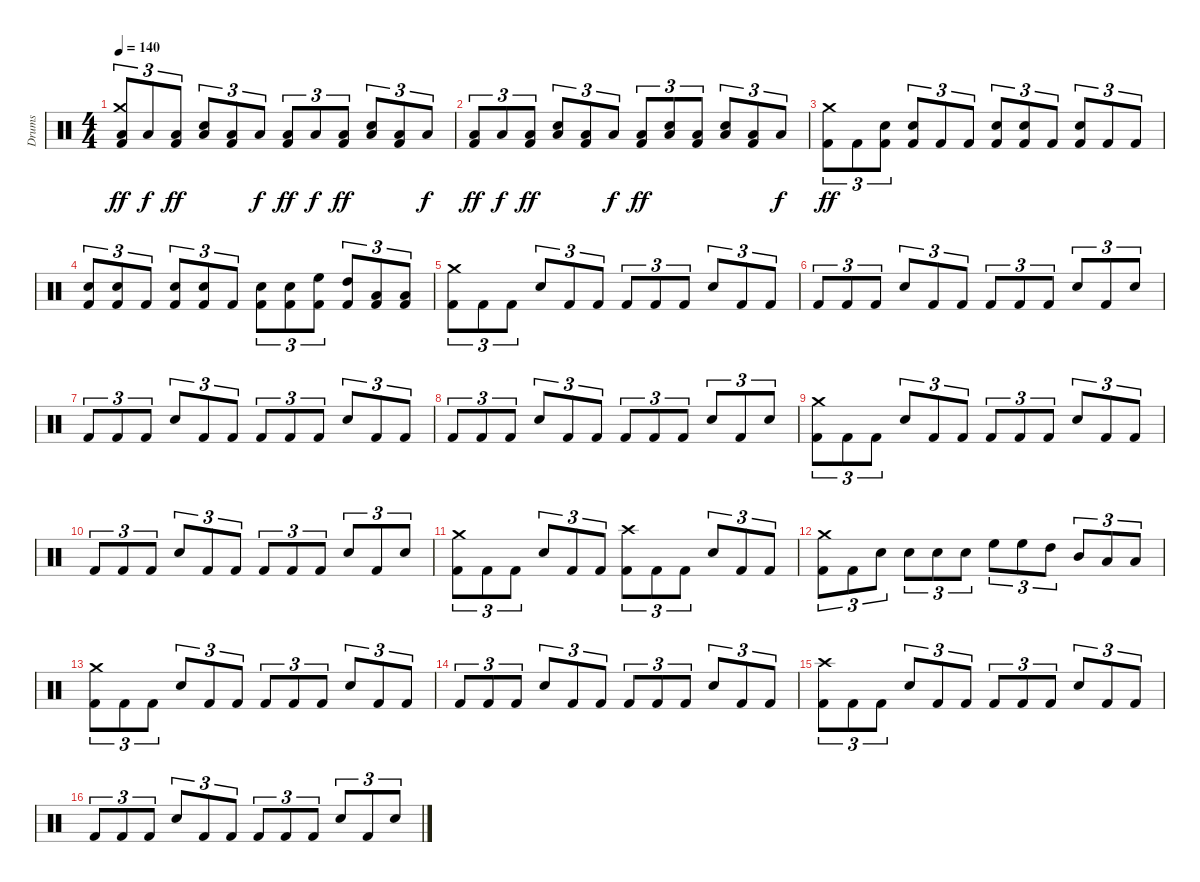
\track ("Drums" "Drums") {instrument percussion}
\staff {score}
\articulation defaults
\ts (4 4)
\tempo 140
\clef neutral
\ks c
("Kick (hit) 2" "Crash medium (hit)" "Low Floor Tom (hit)").8{tu (3 2) dy ff} "Low Floor Tom (hit)".8{tu (3 2) dy f} ("Kick (hit) 2" "Low Floor Tom (hit)").8{tu (3 2) dy ff} ("Snare (hit) 2" "Low Floor Tom (hit)").8{tu (3 2)} ("Kick (hit) 2" "Low Floor Tom (hit)").8{tu (3 2)} "Low Floor Tom (hit)".8{tu (3 2) dy f} ("Kick (hit) 2" "Low Floor Tom (hit)").8{tu (3 2) dy ff} "Low Floor Tom (hit)".8{tu (3 2) dy f} ("Kick (hit) 2" "Low Floor Tom (hit)").8{tu (3 2) dy ff} ("Snare (hit) 2" "Low Floor Tom (hit)").8{tu (3 2)} ("Kick (hit) 2" "Low Floor Tom (hit)").8{tu (3 2)} "Low Floor Tom (hit)".8{tu (3 2) dy f} |
("Kick (hit) 2" "Low Floor Tom (hit)").8{tu (3 2) dy ff} "Low Floor Tom (hit)".8{tu (3 2) dy f} ("Kick (hit) 2" "Low Floor Tom (hit)").8{tu (3 2) dy ff} ("Snare (hit) 2" "Low Floor Tom (hit)").8{tu (3 2)} ("Kick (hit) 2" "Low Floor Tom (hit)").8{tu (3 2)} "Low Floor Tom (hit)".8{tu (3 2) dy f} ("Kick (hit) 2" "Low Floor Tom (hit)").8{tu (3 2) dy ff} ("Snare (hit) 2" "Low Floor Tom (hit)").8{tu (3 2)} ("Kick (hit) 2" "Low Floor Tom (hit)").8{tu (3 2)} ("Snare (hit) 2" "Low Floor Tom (hit)").8{tu (3 2)} ("Kick (hit) 2" "Low Floor Tom (hit)").8{tu (3 2)} "Low Floor Tom (hit)".8{tu (3 2) dy f} |
("Kick (hit) 2" "Crash medium (hit)").8{tu (3 2) dy ff} "Kick (hit) 2".8{tu (3 2)} ("Kick (hit) 2" "Snare (hit) 2").8{tu (3 2)} ("Snare (hit) 2" "Kick (hit) 2").8{tu (3 2)} "Kick (hit) 2".8{tu (3 2)} "Kick (hit) 2".8{tu (3 2)} ("Snare (hit) 2" "Kick (hit) 2").8{tu (3 2)} ("Snare (hit) 2" "Kick (hit) 2").8{tu (3 2)} "Kick (hit) 2".8{tu (3 2)} ("Snare (hit) 2" "Kick (hit) 2").8{tu (3 2)} "Kick (hit) 2".8{tu (3 2)} "Kick (hit) 2".8{tu (3 2)} |
("Snare (hit) 2" "Kick (hit) 2").8{tu (3 2)} ("Snare (hit) 2" "Kick (hit) 2").8{tu (3 2)} "Kick (hit) 2".8{tu (3 2)} ("Snare (hit) 2" "Kick (hit) 2").8{tu (3 2)} ("Snare (hit) 2" "Kick (hit) 2").8{tu (3 2)} "Kick (hit) 2".8{tu (3 2)} ("Snare (hit) 2" "Kick (hit) 2").8{tu (3 2)} ("Snare (hit) 2" "Kick (hit) 2").8{tu (3 2)} ("High Floor Tom (hit)" "Kick (hit) 2").8{tu (3 2)} ("High Tom (hit)" "Kick (hit) 2").8{tu (3 2)} ("Low Tom (hit)" "Kick (hit) 2").8{tu (3 2)} ("Low Floor Tom (hit)" "Kick (hit) 2").8{tu (3 2)} |
("Kick (hit) 2" "Crash medium (hit)").8{tu (3 2)} "Kick (hit) 2".8{tu (3 2)} "Kick (hit) 2".8{tu (3 2)} "Snare (hit) 2".8{tu (3 2)} "Kick (hit) 2".8{tu (3 2)} "Kick (hit) 2".8{tu (3 2)} "Kick (hit) 2".8{tu (3 2)} "Kick (hit) 2".8{tu (3 2)} "Kick (hit) 2".8{tu (3 2)} "Snare (hit) 2".8{tu (3 2)} "Kick (hit) 2".8{tu (3 2)} "Kick (hit) 2".8{tu (3 2)} |
"Kick (hit) 2".8{tu (3 2)} "Kick (hit) 2".8{tu (3 2)} "Kick (hit) 2".8{tu (3 2)} "Snare (hit) 2".8{tu (3 2)} "Kick (hit) 2".8{tu (3 2)} "Kick (hit) 2".8{tu (3 2)} "Kick (hit) 2".8{tu (3 2)} "Kick (hit) 2".8{tu (3 2)} "Kick (hit) 2".8{tu (3 2)} "Snare (hit) 2".8{tu (3 2)} "Kick (hit) 2".8{tu (3 2)} "Snare (hit) 2".8{tu (3 2)} |
"Kick (hit) 2".8{tu (3 2)} "Kick (hit) 2".8{tu (3 2)} "Kick (hit) 2".8{tu (3 2)} "Snare (hit) 2".8{tu (3 2)} "Kick (hit) 2".8{tu (3 2)} "Kick (hit) 2".8{tu (3 2)} "Kick (hit) 2".8{tu (3 2)} "Kick (hit) 2".8{tu (3 2)} "Kick (hit) 2".8{tu (3 2)} "Snare (hit) 2".8{tu (3 2)} "Kick (hit) 2".8{tu (3 2)} "Kick (hit) 2".8{tu (3 2)} |
"Kick (hit) 2".8{tu (3 2)} "Kick (hit) 2".8{tu (3 2)} "Kick (hit) 2".8{tu (3 2)} "Snare (hit) 2".8{tu (3 2)} "Kick (hit) 2".8{tu (3 2)} "Kick (hit) 2".8{tu (3 2)} "Kick (hit) 2".8{tu (3 2)} "Kick (hit) 2".8{tu (3 2)} "Kick (hit) 2".8{tu (3 2)} "Snare (hit) 2".8{tu (3 2)} "Kick (hit) 2".8{tu (3 2)} "Snare (hit) 2".8{tu (3 2)} |
("Kick (hit) 2" "Crash medium (hit)").8{tu (3 2)} "Kick (hit) 2".8{tu (3 2)} "Kick (hit) 2".8{tu (3 2)} "Snare (hit) 2".8{tu (3 2)} "Kick (hit) 2".8{tu (3 2)} "Kick (hit) 2".8{tu (3 2)} "Kick (hit) 2".8{tu (3 2)} "Kick (hit) 2".8{tu (3 2)} "Kick (hit) 2".8{tu (3 2)} "Snare (hit) 2".8{tu (3 2)} "Kick (hit) 2".8{tu (3 2)} "Kick (hit) 2".8{tu (3 2)} |
"Kick (hit) 2".8{tu (3 2)} "Kick (hit) 2".8{tu (3 2)} "Kick (hit) 2".8{tu (3 2)} "Snare (hit) 2".8{tu (3 2)} "Kick (hit) 2".8{tu (3 2)} "Kick (hit) 2".8{tu (3 2)} "Kick (hit) 2".8{tu (3 2)} "Kick (hit) 2".8{tu (3 2)} "Kick (hit) 2".8{tu (3 2)} "Snare (hit) 2".8{tu (3 2)} "Kick (hit) 2".8{tu (3 2)} "Snare (hit) 2".8{tu (3 2)} |
("Kick (hit) 2" "Crash medium (hit)").8{tu (3 2)} "Kick (hit) 2".8{tu (3 2)} "Kick (hit) 2".8{tu (3 2)} "Snare (hit) 2".8{tu (3 2)} "Kick (hit) 2".8{tu (3 2)} "Kick (hit) 2".8{tu (3 2)} ("Kick (hit) 2" "Crash high (hit)").8{tu (3 2)} "Kick (hit) 2".8{tu (3 2)} "Kick (hit) 2".8{tu (3 2)} "Snare (hit) 2".8{tu (3 2)} "Kick (hit) 2".8{tu (3 2)} "Kick (hit) 2".8{tu (3 2)} |
("Kick (hit) 2" "Crash medium (hit)").8{tu (3 2)} "Kick (hit) 2".8{tu (3 2)} "Snare (hit) 2".8{tu (3 2)} "Snare (hit) 2".8{tu (3 2)} "Snare (hit) 2".8{tu (3 2)} "Snare (hit) 2".8{tu (3 2)} "High Floor Tom (hit)".8{tu (3 2)} "High Floor Tom (hit)".8{tu (3 2)} "High Tom (hit)".8{tu (3 2)} "Mid Tom (hit)".8{tu (3 2)} "Low Tom (hit)".8{tu (3 2)} "Low Floor Tom (hit)".8{tu (3 2)} |
("Kick (hit) 2" "Crash medium (hit)").8{tu (3 2)} "Kick (hit) 2".8{tu (3 2)} "Kick (hit) 2".8{tu (3 2)} "Snare (hit) 2".8{tu (3 2)} "Kick (hit) 2".8{tu (3 2)} "Kick (hit) 2".8{tu (3 2)} "Kick (hit) 2".8{tu (3 2)} "Kick (hit) 2".8{tu (3 2)} "Kick (hit) 2".8{tu (3 2)} "Snare (hit) 2".8{tu (3 2)} "Kick (hit) 2".8{tu (3 2)} "Kick (hit) 2".8{tu (3 2)} |
"Kick (hit) 2".8{tu (3 2)} "Kick (hit) 2".8{tu (3 2)} "Kick (hit) 2".8{tu (3 2)} "Snare (hit) 2".8{tu (3 2)} "Kick (hit) 2".8{tu (3 2)} "Kick (hit) 2".8{tu (3 2)} "Kick (hit) 2".8{tu (3 2)} "Kick (hit) 2".8{tu (3 2)} "Kick (hit) 2".8{tu (3 2)} "Snare (hit) 2".8{tu (3 2)} "Kick (hit) 2".8{tu (3 2)} "Kick (hit) 2".8{tu (3 2)} |
("Kick (hit) 2" "Crash high (hit)").8{tu (3 2)} "Kick (hit) 2".8{tu (3 2)} "Kick (hit) 2".8{tu (3 2)} "Snare (hit) 2".8{tu (3 2)} "Kick (hit) 2".8{tu (3 2)} "Kick (hit) 2".8{tu (3 2)} "Kick (hit) 2".8{tu (3 2)} "Kick (hit) 2".8{tu (3 2)} "Kick (hit) 2".8{tu (3 2)} "Snare (hit) 2".8{tu (3 2)} "Kick (hit) 2".8{tu (3 2)} "Kick (hit) 2".8{tu (3 2)} |
"Kick (hit) 2".8{tu (3 2)} "Kick (hit) 2".8{tu (3 2)} "Kick (hit) 2".8{tu (3 2)} "Snare (hit) 2".8{tu (3 2)} "Kick (hit) 2".8{tu (3 2)} "Kick (hit) 2".8{tu (3 2)} "Kick (hit) 2".8{tu (3 2)} "Kick (hit) 2".8{tu (3 2)} "Kick (hit) 2".8{tu (3 2)} "Snare (hit) 2".8{tu (3 2)} "Kick (hit) 2".8{tu (3 2)} "Snare (hit) 2".8{tu (3 2)}
